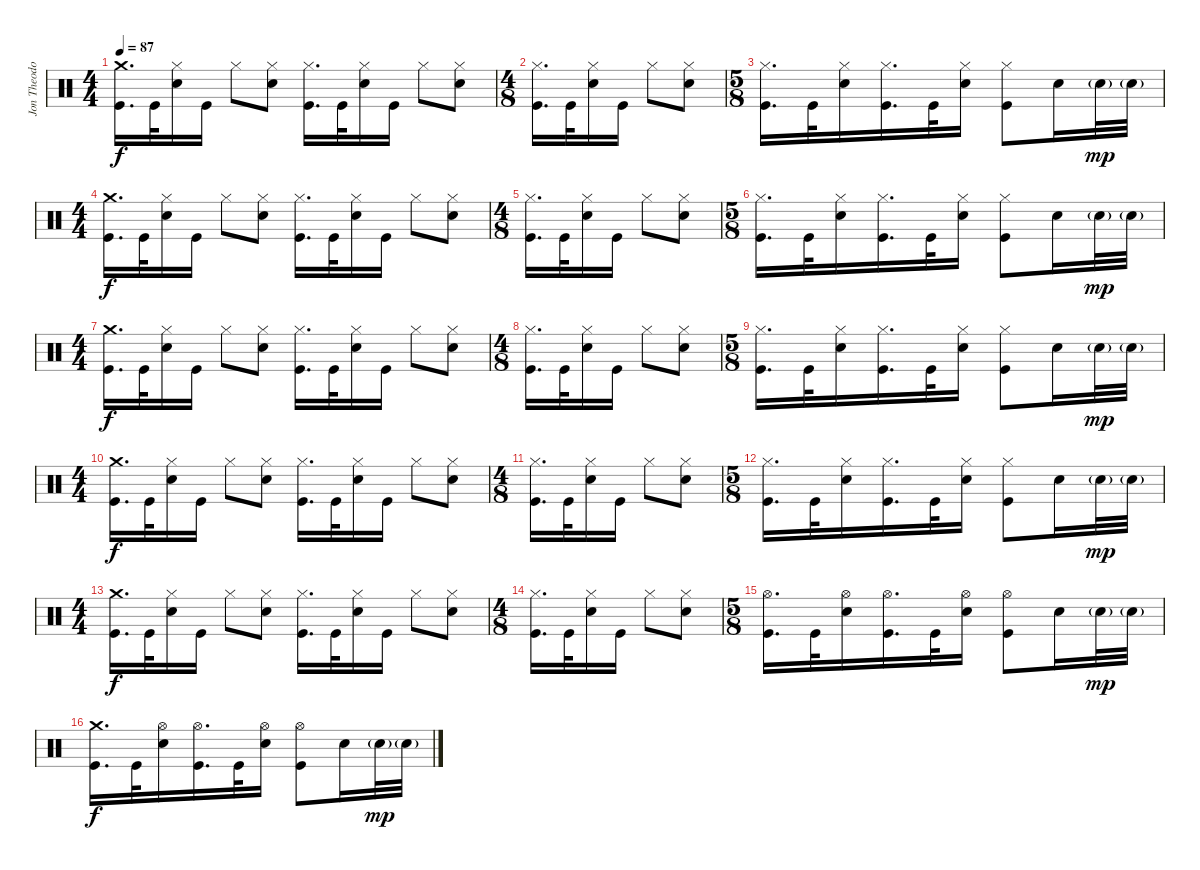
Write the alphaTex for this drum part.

\track ("Jon Theodore" "Jon Theodo") {instrument percussion}
\staff {score}
\articulation defaults
\ts (4 4)
\tempo 87
\clef neutral
\ks c
("Crash medium (hit)" "Kick (hit)").16{d dy f} "Kick (hit)".32 ("Hi-Hat (closed)" "Snare (hit) 2").16 "Kick (hit)".16 "Hi-Hat (closed)".8 ("Hi-Hat (closed)" "Snare (hit) 2").8 ("Hi-Hat (closed)" "Kick (hit)").16{d} "Kick (hit)".32 ("Hi-Hat (closed)" "Snare (hit) 2").16 "Kick (hit)".16 "Hi-Hat (closed)".8 ("Hi-Hat (closed)" "Snare (hit) 2").8 |
\ts (4 8)
("Hi-Hat (closed)" "Kick (hit)").16{d} "Kick (hit)".32 ("Hi-Hat (closed)" "Snare (hit) 2").16 "Kick (hit)".16 "Hi-Hat (closed)".8 ("Hi-Hat (closed)" "Snare (hit) 2").8 |
\ts (5 8)
("Hi-Hat (closed)" "Kick (hit)").16{d} "Kick (hit)".32 ("Hi-Hat (closed)" "Snare (hit) 2").16 ("Hi-Hat (closed)" "Kick (hit)").16{d} "Kick (hit)".32 ("Hi-Hat (closed)" "Snare (hit) 2").16 ("Hi-Hat (closed)" "Kick (hit)").8 "Snare (hit) 2".16 "Snare (hit) 2"{g}.32{dy mp} "Snare (hit) 2"{g}.32 |
\ts (4 4)
("Crash medium (hit)" "Kick (hit)").16{d dy f} "Kick (hit)".32 ("Hi-Hat (closed)" "Snare (hit) 2").16 "Kick (hit)".16 "Hi-Hat (closed)".8 ("Hi-Hat (closed)" "Snare (hit) 2").8 ("Hi-Hat (closed)" "Kick (hit)").16{d} "Kick (hit)".32 ("Hi-Hat (closed)" "Snare (hit) 2").16 "Kick (hit)".16 "Hi-Hat (closed)".8 ("Hi-Hat (closed)" "Snare (hit) 2").8 |
\ts (4 8)
("Hi-Hat (closed)" "Kick (hit)").16{d} "Kick (hit)".32 ("Hi-Hat (closed)" "Snare (hit) 2").16 "Kick (hit)".16 "Hi-Hat (closed)".8 ("Hi-Hat (closed)" "Snare (hit) 2").8 |
\ts (5 8)
("Hi-Hat (closed)" "Kick (hit)").16{d} "Kick (hit)".32 ("Hi-Hat (closed)" "Snare (hit) 2").16 ("Hi-Hat (closed)" "Kick (hit)").16{d} "Kick (hit)".32 ("Hi-Hat (closed)" "Snare (hit) 2").16 ("Hi-Hat (closed)" "Kick (hit)").8 "Snare (hit) 2".16 "Snare (hit) 2"{g}.32{dy mp} "Snare (hit) 2"{g}.32 |
\ts (4 4)
("Crash medium (hit)" "Kick (hit)").16{d dy f} "Kick (hit)".32 ("Hi-Hat (closed)" "Snare (hit) 2").16 "Kick (hit)".16 "Hi-Hat (closed)".8 ("Hi-Hat (closed)" "Snare (hit) 2").8 ("Hi-Hat (closed)" "Kick (hit)").16{d} "Kick (hit)".32 ("Hi-Hat (closed)" "Snare (hit) 2").16 "Kick (hit)".16 "Hi-Hat (closed)".8 ("Hi-Hat (closed)" "Snare (hit) 2").8 |
\ts (4 8)
("Hi-Hat (closed)" "Kick (hit)").16{d} "Kick (hit)".32 ("Hi-Hat (closed)" "Snare (hit) 2").16 "Kick (hit)".16 "Hi-Hat (closed)".8 ("Hi-Hat (closed)" "Snare (hit) 2").8 |
\ts (5 8)
("Hi-Hat (closed)" "Kick (hit)").16{d} "Kick (hit)".32 ("Hi-Hat (closed)" "Snare (hit) 2").16 ("Hi-Hat (closed)" "Kick (hit)").16{d} "Kick (hit)".32 ("Hi-Hat (closed)" "Snare (hit) 2").16 ("Hi-Hat (closed)" "Kick (hit)").8 "Snare (hit) 2".16 "Snare (hit) 2"{g}.32{dy mp} "Snare (hit) 2"{g}.32 |
\ts (4 4)
("Crash medium (hit)" "Kick (hit)").16{d dy f} "Kick (hit)".32 ("Hi-Hat (closed)" "Snare (hit) 2").16 "Kick (hit)".16 "Hi-Hat (closed)".8 ("Hi-Hat (closed)" "Snare (hit) 2").8 ("Hi-Hat (closed)" "Kick (hit)").16{d} "Kick (hit)".32 ("Hi-Hat (closed)" "Snare (hit) 2").16 "Kick (hit)".16 "Hi-Hat (closed)".8 ("Hi-Hat (closed)" "Snare (hit) 2").8 |
\ts (4 8)
("Hi-Hat (closed)" "Kick (hit)").16{d} "Kick (hit)".32 ("Hi-Hat (closed)" "Snare (hit) 2").16 "Kick (hit)".16 "Hi-Hat (closed)".8 ("Hi-Hat (closed)" "Snare (hit) 2").8 |
\ts (5 8)
("Hi-Hat (closed)" "Kick (hit)").16{d} "Kick (hit)".32 ("Hi-Hat (closed)" "Snare (hit) 2").16 ("Hi-Hat (closed)" "Kick (hit)").16{d} "Kick (hit)".32 ("Hi-Hat (closed)" "Snare (hit) 2").16 ("Hi-Hat (closed)" "Kick (hit)").8 "Snare (hit) 2".16 "Snare (hit) 2"{g}.32{dy mp} "Snare (hit) 2"{g}.32 |
\ts (4 4)
("Crash medium (hit)" "Kick (hit)").16{d dy f} "Kick (hit)".32 ("Hi-Hat (closed)" "Snare (hit) 2").16 "Kick (hit)".16 "Hi-Hat (closed)".8 ("Hi-Hat (closed)" "Snare (hit) 2").8 ("Hi-Hat (closed)" "Kick (hit)").16{d} "Kick (hit)".32 ("Hi-Hat (closed)" "Snare (hit) 2").16 "Kick (hit)".16 "Hi-Hat (closed)".8 ("Hi-Hat (closed)" "Snare (hit) 2").8 |
\ts (4 8)
("Hi-Hat (closed)" "Kick (hit)").16{d} "Kick (hit)".32 ("Hi-Hat (closed)" "Snare (hit) 2").16 "Kick (hit)".16 "Hi-Hat (closed)".8 ("Hi-Hat (closed)" "Snare (hit) 2").8 |
\ts (5 8)
("Hi-Hat (open)" "Kick (hit)").16{d} "Kick (hit)".32 ("Hi-Hat (open)" "Snare (hit) 2").16 ("Hi-Hat (open)" "Kick (hit)").16{d} "Kick (hit)".32 ("Hi-Hat (open)" "Snare (hit) 2").16 ("Hi-Hat (open)" "Kick (hit)").8 "Snare (hit) 2".16 "Snare (hit) 2"{g}.32{dy mp} "Snare (hit) 2"{g}.32 |
("Crash medium (hit)" "Kick (hit)").16{d dy f} "Kick (hit)".32 ("Hi-Hat (open)" "Snare (hit) 2").16 ("Hi-Hat (open)" "Kick (hit)").16{d} "Kick (hit)".32 ("Hi-Hat (open)" "Snare (hit) 2").16 ("Hi-Hat (open)" "Kick (hit)").8 "Snare (hit) 2".16 "Snare (hit) 2"{g}.32{dy mp} "Snare (hit) 2"{g}.32
